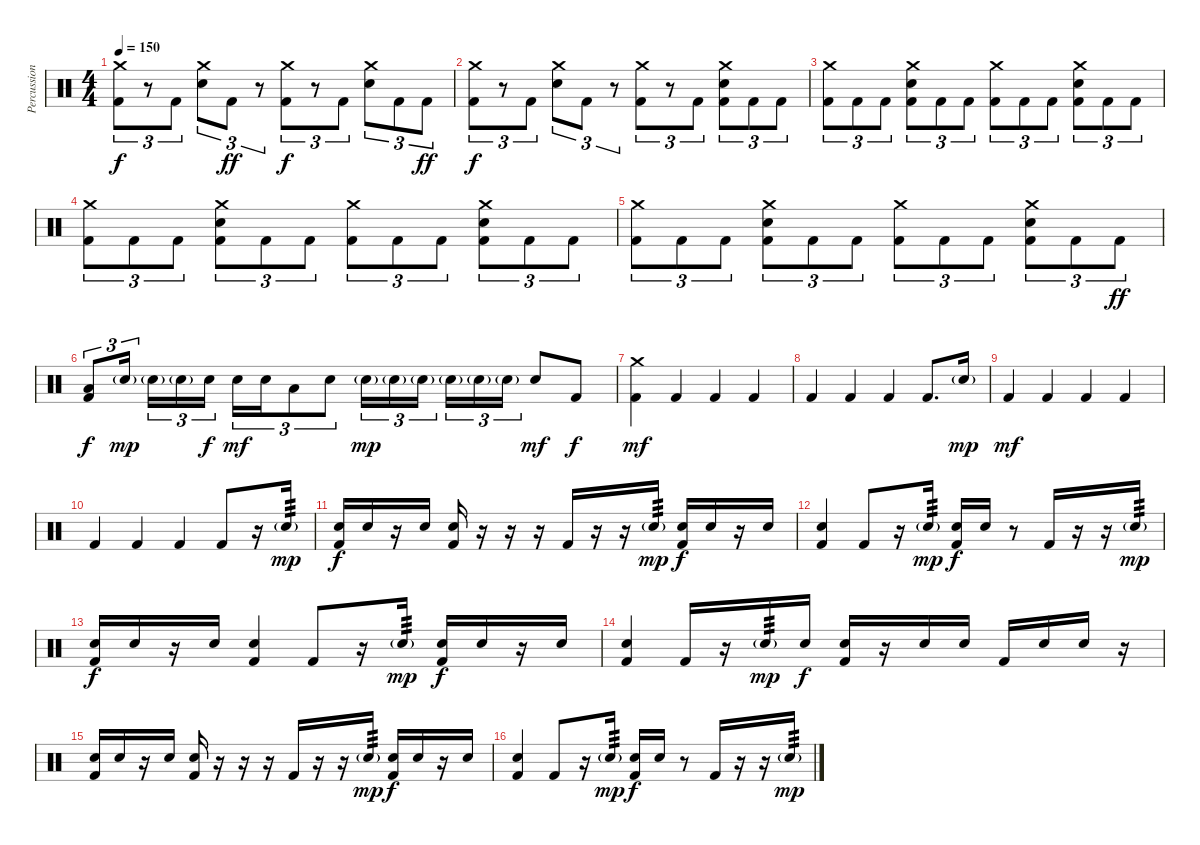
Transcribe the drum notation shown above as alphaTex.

\track ("Percussion" "Percussion") {instrument percussion}
\staff {score}
\articulation defaults
\ts (4 4)
\tempo 150
\clef neutral
\ks c
("Crash medium (hit)" "Kick (hit) 2").8{tu (3 2) dy f} r.8{tu (3 2)} "Kick (hit) 2".8{tu (3 2)} ("Crash medium (hit)" "Electric Snare (hit)").8{tu (3 2)} "Kick (hit) 2".8{tu (3 2) dy ff} r.8{tu (3 2)} ("Crash medium (hit)" "Kick (hit) 2").8{tu (3 2) dy f} r.8{tu (3 2)} "Kick (hit) 2".8{tu (3 2)} ("Crash medium (hit)" "Electric Snare (hit)").8{tu (3 2)} "Kick (hit) 2".8{tu (3 2)} "Kick (hit) 2".8{tu (3 2) dy ff} |
("Crash medium (hit)" "Kick (hit) 2").8{tu (3 2) dy f} r.8{tu (3 2)} "Kick (hit) 2".8{tu (3 2)} ("Crash medium (hit)" "Electric Snare (hit)").8{tu (3 2)} "Kick (hit) 2".8{tu (3 2)} r.8{tu (3 2)} ("Crash medium (hit)" "Kick (hit) 2").8{tu (3 2)} r.8{tu (3 2)} "Kick (hit) 2".8{tu (3 2)} ("Crash medium (hit)" "Electric Snare (hit)" "Kick (hit) 2").8{tu (3 2)} "Kick (hit) 2".8{tu (3 2)} "Kick (hit) 2".8{tu (3 2)} |
("Crash medium (hit)" "Kick (hit) 2").8{tu (3 2)} "Kick (hit) 2".8{tu (3 2)} "Kick (hit) 2".8{tu (3 2)} ("Crash medium (hit)" "Electric Snare (hit)" "Kick (hit) 2").8{tu (3 2)} "Kick (hit) 2".8{tu (3 2)} "Kick (hit) 2".8{tu (3 2)} ("Crash medium (hit)" "Kick (hit) 2").8{tu (3 2)} "Kick (hit) 2".8{tu (3 2)} "Kick (hit) 2".8{tu (3 2)} ("Crash medium (hit)" "Electric Snare (hit)" "Kick (hit) 2").8{tu (3 2)} "Kick (hit) 2".8{tu (3 2)} "Kick (hit) 2".8{tu (3 2)} |
("Crash medium (hit)" "Kick (hit) 2").8{tu (3 2)} "Kick (hit) 2".8{tu (3 2)} "Kick (hit) 2".8{tu (3 2)} ("Crash medium (hit)" "Electric Snare (hit)" "Kick (hit) 2").8{tu (3 2)} "Kick (hit) 2".8{tu (3 2)} "Kick (hit) 2".8{tu (3 2)} ("Crash medium (hit)" "Kick (hit) 2").8{tu (3 2)} "Kick (hit) 2".8{tu (3 2)} "Kick (hit) 2".8{tu (3 2)} ("Crash medium (hit)" "Electric Snare (hit)" "Kick (hit) 2").8{tu (3 2)} "Kick (hit) 2".8{tu (3 2)} "Kick (hit) 2".8{tu (3 2)} |
("Crash medium (hit)" "Kick (hit) 2").8{tu (3 2)} "Kick (hit) 2".8{tu (3 2)} "Kick (hit) 2".8{tu (3 2)} ("Crash medium (hit)" "Electric Snare (hit)" "Kick (hit) 2").8{tu (3 2)} "Kick (hit) 2".8{tu (3 2)} "Kick (hit) 2".8{tu (3 2)} ("Crash medium (hit)" "Kick (hit) 2").8{tu (3 2)} "Kick (hit) 2".8{tu (3 2)} "Kick (hit) 2".8{tu (3 2)} ("Crash medium (hit)" "Electric Snare (hit)" "Kick (hit) 2").8{tu (3 2)} "Kick (hit) 2".8{tu (3 2)} "Kick (hit) 2".8{tu (3 2) dy ff} |
("Low Tom (hit)" "Kick (hit) 2").8{tu (3 2) dy f} "Electric Snare (hit)"{g}.16{tu (3 2) dy mp beam splitsecondary} "Electric Snare (hit)"{g}.16{tu (3 2)} "Electric Snare (hit)"{g}.16{tu (3 2)} "Electric Snare (hit)".16{tu (3 2) dy f} "Electric Snare (hit)".16{tu (3 2) dy mf} "Electric Snare (hit)".16{tu (3 2)} "Low Tom (hit)".8{tu (3 2)} "Electric Snare (hit)".8{tu (3 2)} "Electric Snare (hit)"{g}.16{tu (3 2) dy mp} "Electric Snare (hit)"{g}.16{tu (3 2)} "Electric Snare (hit)"{g}.16{tu (3 2) beam splitsecondary} "Electric Snare (hit)"{g}.16{tu (3 2)} "Electric Snare (hit)"{g}.16{tu (3 2)} "Electric Snare (hit)"{g}.16{tu (3 2)} "Electric Snare (hit)".8{dy mf} "Kick (hit) 2".8{dy f} |
("Crash medium (hit)" "Kick (hit) 2").4{dy mf} "Kick (hit) 2".4 "Kick (hit) 2".4 "Kick (hit) 2".4 |
"Kick (hit) 2".4 "Kick (hit) 2".4 "Kick (hit) 2".4 "Kick (hit) 2".8{d} "Snare (hit) 2"{g}.16{dy mp} |
"Kick (hit) 2".4{dy mf} "Kick (hit) 2".4 "Kick (hit) 2".4 "Kick (hit) 2".4 |
"Kick (hit) 2".4 "Kick (hit) 2".4 "Kick (hit) 2".4 "Kick (hit) 2".8 r.16 "Snare (hit) 2"{g}.16{tp 3 dy mp} |
("Snare (hit) 2" "Kick (hit) 2").16{dy f} "Snare (hit) 2".16 r.16 "Snare (hit) 2".16 ("Snare (hit) 2" "Kick (hit) 2").16 r.16 r.16 r.16 "Kick (hit) 2".16 r.16 r.16 "Snare (hit) 2"{g}.16{tp 3 dy mp} ("Snare (hit) 2" "Kick (hit) 2").16{dy f} "Snare (hit) 2".16 r.16 "Snare (hit) 2".16 |
("Snare (hit) 2" "Kick (hit) 2").4 "Kick (hit) 2".8 r.16 "Snare (hit) 2"{g}.16{tp 3 dy mp} ("Snare (hit) 2" "Kick (hit) 2").16{dy f} "Snare (hit) 2".16 r.8 "Kick (hit) 2".16 r.16 r.16 "Snare (hit) 2"{g}.16{tp 3 dy mp} |
("Snare (hit) 2" "Kick (hit) 2").16{dy f} "Snare (hit) 2".16 r.16 "Snare (hit) 2".16 ("Snare (hit) 2" "Kick (hit) 2").4 "Kick (hit) 2".8 r.16 "Snare (hit) 2"{g}.16{tp 3 dy mp} ("Snare (hit) 2" "Kick (hit) 2").16{dy f} "Snare (hit) 2".16 r.16 "Snare (hit) 2".16 |
("Snare (hit) 2" "Kick (hit) 2").4 "Kick (hit) 2".16 r.16 "Snare (hit) 2"{g}.16{tp 3 dy mp} "Snare (hit) 2".16{dy f} ("Snare (hit) 2" "Kick (hit) 2").16 r.16 "Snare (hit) 2".16 "Snare (hit) 2".16 "Kick (hit) 2".16 "Snare (hit) 2".16 "Snare (hit) 2".16 r.16 |
("Snare (hit) 2" "Kick (hit) 2").16 "Snare (hit) 2".16 r.16 "Snare (hit) 2".16 ("Snare (hit) 2" "Kick (hit) 2").16 r.16 r.16 r.16 "Kick (hit) 2".16 r.16 r.16 "Snare (hit) 2"{g}.16{tp 3 dy mp} ("Snare (hit) 2" "Kick (hit) 2").16{dy f} "Snare (hit) 2".16 r.16 "Snare (hit) 2".16 |
("Snare (hit) 2" "Kick (hit) 2").4 "Kick (hit) 2".8 r.16 "Snare (hit) 2"{g}.16{tp 3 dy mp} ("Snare (hit) 2" "Kick (hit) 2").16{dy f} "Snare (hit) 2".16 r.8 "Kick (hit) 2".16 r.16 r.16 "Snare (hit) 2"{g}.16{tp 3 dy mp}
